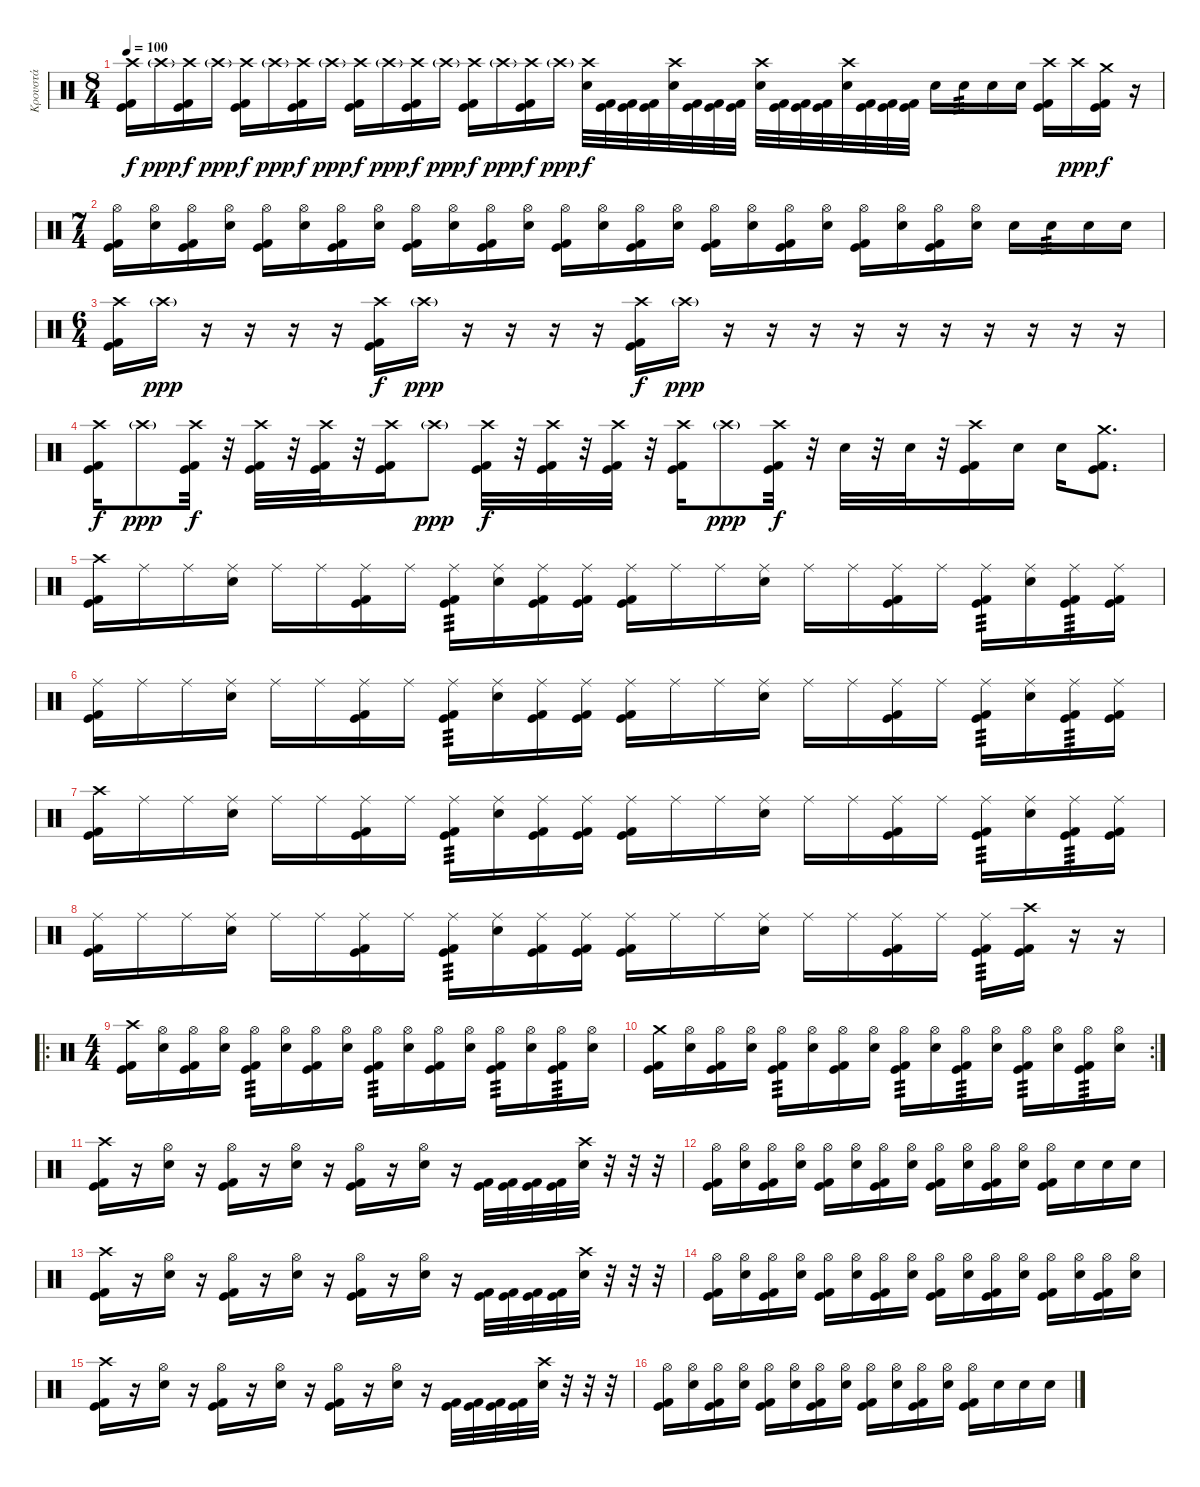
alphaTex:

\track ("Κρουστά" "Κρουστά") {instrument percussion}
\staff {score}
\articulation defaults
\ts (8 4)
\tempo 100
\clef neutral
\ks c
("Crash high (hit)" "Kick (hit)" "Kick (hit) 2").16{dy f} "Crash high (hit)"{g}.16{dy ppp} ("Crash high (hit)" "Kick (hit)" "Kick (hit) 2").16{dy f} "Crash high (hit)"{g}.16{dy ppp} ("Crash high (hit)" "Kick (hit)" "Kick (hit) 2").16{dy f} "Crash high (hit)"{g}.16{dy ppp} ("Crash high (hit)" "Kick (hit)" "Kick (hit) 2").16{dy f} "Crash high (hit)"{g}.16{dy ppp} ("Crash high (hit)" "Kick (hit)" "Kick (hit) 2").16{dy f} "Crash high (hit)"{g}.16{dy ppp} ("Crash high (hit)" "Kick (hit)" "Kick (hit) 2").16{dy f} "Crash high (hit)"{g}.16{dy ppp} ("Crash high (hit)" "Kick (hit)" "Kick (hit) 2").16{dy f} "Crash high (hit)"{g}.16{dy ppp} ("Crash high (hit)" "Kick (hit)" "Kick (hit) 2").16{dy f} "Crash high (hit)"{g}.16{dy ppp} ("Crash high (hit)" "Snare (hit) 2").32{dy f} ("Kick (hit)" "Kick (hit) 2").32 ("Kick (hit)" "Kick (hit) 2").32 ("Kick (hit)" "Kick (hit) 2").32 ("Crash high (hit)" "Snare (hit) 2").32 ("Kick (hit)" "Kick (hit) 2").32 ("Kick (hit)" "Kick (hit) 2").32 ("Kick (hit)" "Kick (hit) 2").32 ("Crash high (hit)" "Snare (hit) 2").32 ("Kick (hit)" "Kick (hit) 2").32 ("Kick (hit)" "Kick (hit) 2").32 ("Kick (hit)" "Kick (hit) 2").32 ("Crash high (hit)" "Snare (hit) 2").32 ("Kick (hit)" "Kick (hit) 2").32 ("Kick (hit)" "Kick (hit) 2").32 ("Kick (hit)" "Kick (hit) 2").32 "Snare (hit) 2".16 "Snare (hit) 2".16{tp 3} "Snare (hit) 2".16 "Snare (hit) 2".16 ("Crash high (hit)" "Kick (hit)" "Kick (hit) 2").16 "Crash high (hit)".16{dy ppp} ("Crash medium (hit)" "Kick (hit)" "Kick (hit) 2").16{dy f} r.16 |
\ts (7 4)
("Hi-Hat (open)" "Kick (hit)" "Kick (hit) 2").16 ("Hi-Hat (open)" "Snare (hit) 2").16 ("Hi-Hat (open)" "Kick (hit)" "Kick (hit) 2").16 ("Hi-Hat (open)" "Snare (hit) 2").16 ("Hi-Hat (open)" "Kick (hit)" "Kick (hit) 2").16 ("Hi-Hat (open)" "Snare (hit) 2").16 ("Hi-Hat (open)" "Kick (hit)" "Kick (hit) 2").16 ("Hi-Hat (open)" "Snare (hit) 2").16 ("Hi-Hat (open)" "Kick (hit)" "Kick (hit) 2").16 ("Hi-Hat (open)" "Snare (hit) 2").16 ("Hi-Hat (open)" "Kick (hit)" "Kick (hit) 2").16 ("Hi-Hat (open)" "Snare (hit) 2").16 ("Hi-Hat (open)" "Kick (hit)" "Kick (hit) 2").16 ("Hi-Hat (open)" "Snare (hit) 2").16 ("Hi-Hat (open)" "Kick (hit)" "Kick (hit) 2").16 ("Hi-Hat (open)" "Snare (hit) 2").16 ("Hi-Hat (open)" "Kick (hit)" "Kick (hit) 2").16 ("Hi-Hat (open)" "Snare (hit) 2").16 ("Hi-Hat (open)" "Kick (hit)" "Kick (hit) 2").16 ("Hi-Hat (open)" "Snare (hit) 2").16 ("Hi-Hat (open)" "Kick (hit)" "Kick (hit) 2").16 ("Hi-Hat (open)" "Snare (hit) 2").16 ("Hi-Hat (open)" "Kick (hit)" "Kick (hit) 2").16 ("Hi-Hat (open)" "Snare (hit) 2").16 "Snare (hit) 2".16 "Snare (hit) 2".16{tp 3} "Snare (hit) 2".16 "Snare (hit) 2".16 |
\ts (6 4)
("Crash high (hit)" "Kick (hit)" "Kick (hit) 2").16 "Crash high (hit)"{g}.16{dy ppp} r.16 r.16 r.16 r.16 ("Crash high (hit)" "Kick (hit)" "Kick (hit) 2").16{dy f} "Crash high (hit)"{g}.16{dy ppp} r.16 r.16 r.16 r.16 ("Crash high (hit)" "Kick (hit)" "Kick (hit) 2").16{dy f} "Crash high (hit)"{g}.16{dy ppp} r.16 r.16 r.16 r.16 r.16 r.16 r.16 r.16 r.16 r.16 |
("Crash high (hit)" "Kick (hit)" "Kick (hit) 2").16{dy f} "Crash high (hit)"{g}.8{dy ppp} ("Crash high (hit)" "Kick (hit)" "Kick (hit) 2").32{dy f} r.32 ("Crash high (hit)" "Kick (hit)" "Kick (hit) 2").32 r.32 ("Crash high (hit)" "Kick (hit)" "Kick (hit) 2").32 r.32 ("Crash high (hit)" "Kick (hit)" "Kick (hit) 2").16 "Crash high (hit)"{g}.8{dy ppp} ("Crash high (hit)" "Kick (hit)" "Kick (hit) 2").32{dy f} r.32 ("Crash high (hit)" "Kick (hit)" "Kick (hit) 2").32 r.32 ("Crash high (hit)" "Kick (hit)" "Kick (hit) 2").32 r.32 ("Crash high (hit)" "Kick (hit)" "Kick (hit) 2").16 "Crash high (hit)"{g}.8{dy ppp} ("Crash high (hit)" "Kick (hit)" "Kick (hit) 2").32{dy f} r.32 "Snare (hit) 2".32 r.32 "Snare (hit) 2".32 r.32 ("Crash high (hit)" "Kick (hit)" "Kick (hit) 2").16 "Snare (hit) 2".16 "Snare (hit) 2".16 ("Crash medium (hit)" "Kick (hit)" "Kick (hit) 2").8{d} |
("Crash high (hit)" "Kick (hit)" "Kick (hit) 2").16 "Ride (middle)".16 "Ride (middle)".16 ("Ride (middle)" "Snare (hit) 2").16 "Ride (middle)".16 "Ride (middle)".16 ("Ride (middle)" "Kick (hit)" "Kick (hit) 2").16 "Ride (middle)".16 ("Ride (middle)" "Kick (hit)" "Kick (hit) 2").16{tp 3} ("Ride (middle)" "Snare (hit) 2").16 ("Ride (middle)" "Kick (hit)" "Kick (hit) 2").16 ("Ride (middle)" "Kick (hit)" "Kick (hit) 2").16 ("Ride (middle)" "Kick (hit)" "Kick (hit) 2").16 "Ride (middle)".16 "Ride (middle)".16 ("Ride (middle)" "Snare (hit) 2").16 "Ride (middle)".16 "Ride (middle)".16 ("Ride (middle)" "Kick (hit)" "Kick (hit) 2").16 "Ride (middle)".16 ("Ride (middle)" "Kick (hit)" "Kick (hit) 2").16{tp 3} ("Ride (middle)" "Snare (hit) 2").16 ("Ride (middle)" "Kick (hit)" "Kick (hit) 2").16{tp 3} ("Ride (middle)" "Kick (hit)" "Kick (hit) 2").16 |
("Ride (middle)" "Kick (hit)" "Kick (hit) 2").16 "Ride (middle)".16 "Ride (middle)".16 ("Ride (middle)" "Snare (hit) 2").16 "Ride (middle)".16 "Ride (middle)".16 ("Ride (middle)" "Kick (hit)" "Kick (hit) 2").16 "Ride (middle)".16 ("Ride (middle)" "Kick (hit)" "Kick (hit) 2").16{tp 3} ("Ride (middle)" "Snare (hit) 2").16 ("Ride (middle)" "Kick (hit)" "Kick (hit) 2").16 ("Ride (middle)" "Kick (hit)" "Kick (hit) 2").16 ("Ride (middle)" "Kick (hit)" "Kick (hit) 2").16 "Ride (middle)".16 "Ride (middle)".16 ("Ride (middle)" "Snare (hit) 2").16 "Ride (middle)".16 "Ride (middle)".16 ("Ride (middle)" "Kick (hit)" "Kick (hit) 2").16 "Ride (middle)".16 ("Ride (middle)" "Kick (hit)" "Kick (hit) 2").16{tp 3} ("Ride (middle)" "Snare (hit) 2").16 ("Ride (middle)" "Kick (hit)" "Kick (hit) 2").16{tp 3} ("Ride (middle)" "Kick (hit)" "Kick (hit) 2").16 |
("Crash high (hit)" "Kick (hit)" "Kick (hit) 2").16 "Ride (middle)".16 "Ride (middle)".16 ("Ride (middle)" "Snare (hit) 2").16 "Ride (middle)".16 "Ride (middle)".16 ("Ride (middle)" "Kick (hit)" "Kick (hit) 2").16 "Ride (middle)".16 ("Ride (middle)" "Kick (hit)" "Kick (hit) 2").16{tp 3} ("Ride (middle)" "Snare (hit) 2").16 ("Ride (middle)" "Kick (hit)" "Kick (hit) 2").16 ("Ride (middle)" "Kick (hit)" "Kick (hit) 2").16 ("Ride (middle)" "Kick (hit)" "Kick (hit) 2").16 "Ride (middle)".16 "Ride (middle)".16 ("Ride (middle)" "Snare (hit) 2").16 "Ride (middle)".16 "Ride (middle)".16 ("Ride (middle)" "Kick (hit)" "Kick (hit) 2").16 "Ride (middle)".16 ("Ride (middle)" "Kick (hit)" "Kick (hit) 2").16{tp 3} ("Ride (middle)" "Snare (hit) 2").16 ("Ride (middle)" "Kick (hit)" "Kick (hit) 2").16{tp 3} ("Ride (middle)" "Kick (hit)" "Kick (hit) 2").16 |
("Ride (middle)" "Kick (hit)" "Kick (hit) 2").16 "Ride (middle)".16 "Ride (middle)".16 ("Ride (middle)" "Snare (hit) 2").16 "Ride (middle)".16 "Ride (middle)".16 ("Ride (middle)" "Kick (hit)" "Kick (hit) 2").16 "Ride (middle)".16 ("Ride (middle)" "Kick (hit)" "Kick (hit) 2").16{tp 3} ("Ride (middle)" "Snare (hit) 2").16 ("Ride (middle)" "Kick (hit)" "Kick (hit) 2").16 ("Ride (middle)" "Kick (hit)" "Kick (hit) 2").16 ("Ride (middle)" "Kick (hit)" "Kick (hit) 2").16 "Ride (middle)".16 "Ride (middle)".16 ("Ride (middle)" "Snare (hit) 2").16 "Ride (middle)".16 "Ride (middle)".16 ("Ride (middle)" "Kick (hit)" "Kick (hit) 2").16 "Ride (middle)".16 ("Ride (middle)" "Kick (hit)" "Kick (hit) 2").16{tp 3} ("Crash high (hit)" "Kick (hit)" "Kick (hit) 2").16 r.16 r.16 |
\ro
\ts (4 4)
("Crash high (hit)" "Kick (hit)" "Kick (hit) 2").16 ("Hi-Hat (open)" "Snare (hit) 2").16 ("Hi-Hat (open)" "Kick (hit)" "Kick (hit) 2").16 ("Hi-Hat (open)" "Snare (hit) 2").16 ("Hi-Hat (open)" "Kick (hit)" "Kick (hit) 2").16{tp 3} ("Hi-Hat (open)" "Snare (hit) 2").16 ("Hi-Hat (open)" "Kick (hit)" "Kick (hit) 2").16 ("Hi-Hat (open)" "Snare (hit) 2").16 ("Hi-Hat (open)" "Kick (hit)" "Kick (hit) 2").16{tp 3} ("Hi-Hat (open)" "Snare (hit) 2").16 ("Hi-Hat (open)" "Kick (hit)" "Kick (hit) 2").16 ("Hi-Hat (open)" "Snare (hit) 2").16 ("Hi-Hat (open)" "Kick (hit)" "Kick (hit) 2").16{tp 3} ("Hi-Hat (open)" "Snare (hit) 2").16 ("Hi-Hat (open)" "Kick (hit)" "Kick (hit) 2").16{tp 3} ("Hi-Hat (open)" "Snare (hit) 2").16 |
\rc 2
("Crash medium (hit)" "Kick (hit)" "Kick (hit) 2").16 ("Hi-Hat (open)" "Snare (hit) 2").16 ("Hi-Hat (open)" "Kick (hit)" "Kick (hit) 2").16 ("Hi-Hat (open)" "Snare (hit) 2").16 ("Hi-Hat (open)" "Kick (hit)" "Kick (hit) 2").16{tp 3} ("Hi-Hat (open)" "Snare (hit) 2").16 ("Hi-Hat (open)" "Kick (hit)" "Kick (hit) 2").16 ("Hi-Hat (open)" "Snare (hit) 2").16 ("Hi-Hat (open)" "Kick (hit)" "Kick (hit) 2").16{tp 3} ("Hi-Hat (open)" "Snare (hit) 2").16 ("Hi-Hat (open)" "Kick (hit)" "Kick (hit) 2").16{tp 3} ("Hi-Hat (open)" "Snare (hit) 2").16 ("Hi-Hat (open)" "Kick (hit)" "Kick (hit) 2").16{tp 3} ("Hi-Hat (open)" "Snare (hit) 2").16 ("Hi-Hat (open)" "Kick (hit)" "Kick (hit) 2").16{tp 3} ("Hi-Hat (open)" "Snare (hit) 2").16 |
("Crash high (hit)" "Kick (hit)" "Kick (hit) 2").16 r.16 ("Hi-Hat (open)" "Snare (hit) 2").16 r.16 ("Hi-Hat (open)" "Kick (hit)" "Kick (hit) 2").16 r.16 ("Hi-Hat (open)" "Snare (hit) 2").16 r.16 ("Hi-Hat (open)" "Kick (hit)" "Kick (hit) 2").16 r.16 ("Hi-Hat (open)" "Snare (hit) 2").16 r.16 ("Kick (hit)" "Kick (hit) 2").32 ("Kick (hit)" "Kick (hit) 2").32 ("Kick (hit)" "Kick (hit) 2").32 ("Kick (hit)" "Kick (hit) 2").32 ("Crash high (hit)" "Snare (hit) 2").32 r.32 r.32 r.32 |
("Hi-Hat (open)" "Kick (hit)" "Kick (hit) 2").16 ("Hi-Hat (open)" "Snare (hit) 2").16 ("Hi-Hat (open)" "Kick (hit)" "Kick (hit) 2").16 ("Hi-Hat (open)" "Snare (hit) 2").16 ("Hi-Hat (open)" "Kick (hit)" "Kick (hit) 2").16 ("Hi-Hat (open)" "Snare (hit) 2").16 ("Hi-Hat (open)" "Kick (hit)" "Kick (hit) 2").16 ("Hi-Hat (open)" "Snare (hit) 2").16 ("Hi-Hat (open)" "Kick (hit)" "Kick (hit) 2").16 ("Hi-Hat (open)" "Snare (hit) 2").16 ("Hi-Hat (open)" "Kick (hit)" "Kick (hit) 2").16 ("Hi-Hat (open)" "Snare (hit) 2").16 ("Hi-Hat (open)" "Kick (hit)" "Kick (hit) 2").16 "Snare (hit) 2".16 "Snare (hit) 2".16 "Snare (hit) 2".16 |
("Crash high (hit)" "Kick (hit)" "Kick (hit) 2").16 r.16 ("Hi-Hat (open)" "Snare (hit) 2").16 r.16 ("Hi-Hat (open)" "Kick (hit)" "Kick (hit) 2").16 r.16 ("Hi-Hat (open)" "Snare (hit) 2").16 r.16 ("Hi-Hat (open)" "Kick (hit)" "Kick (hit) 2").16 r.16 ("Hi-Hat (open)" "Snare (hit) 2").16 r.16 ("Kick (hit)" "Kick (hit) 2").32 ("Kick (hit)" "Kick (hit) 2").32 ("Kick (hit)" "Kick (hit) 2").32 ("Kick (hit)" "Kick (hit) 2").32 ("Crash high (hit)" "Snare (hit) 2").32 r.32 r.32 r.32 |
("Hi-Hat (open)" "Kick (hit)" "Kick (hit) 2").16 ("Hi-Hat (open)" "Snare (hit) 2").16 ("Hi-Hat (open)" "Kick (hit)" "Kick (hit) 2").16 ("Hi-Hat (open)" "Snare (hit) 2").16 ("Hi-Hat (open)" "Kick (hit)" "Kick (hit) 2").16 ("Hi-Hat (open)" "Snare (hit) 2").16 ("Hi-Hat (open)" "Kick (hit)" "Kick (hit) 2").16 ("Hi-Hat (open)" "Snare (hit) 2").16 ("Hi-Hat (open)" "Kick (hit)" "Kick (hit) 2").16 ("Hi-Hat (open)" "Snare (hit) 2").16 ("Hi-Hat (open)" "Kick (hit)" "Kick (hit) 2").16 ("Hi-Hat (open)" "Snare (hit) 2").16 ("Hi-Hat (open)" "Kick (hit)" "Kick (hit) 2").16 ("Hi-Hat (open)" "Snare (hit) 2").16 ("Hi-Hat (open)" "Kick (hit)" "Kick (hit) 2").16 ("Hi-Hat (open)" "Snare (hit) 2").16 |
("Crash high (hit)" "Kick (hit)" "Kick (hit) 2").16 r.16 ("Hi-Hat (open)" "Snare (hit) 2").16 r.16 ("Hi-Hat (open)" "Kick (hit)" "Kick (hit) 2").16 r.16 ("Hi-Hat (open)" "Snare (hit) 2").16 r.16 ("Hi-Hat (open)" "Kick (hit)" "Kick (hit) 2").16 r.16 ("Hi-Hat (open)" "Snare (hit) 2").16 r.16 ("Kick (hit)" "Kick (hit) 2").32 ("Kick (hit)" "Kick (hit) 2").32 ("Kick (hit)" "Kick (hit) 2").32 ("Kick (hit)" "Kick (hit) 2").32 ("Crash high (hit)" "Snare (hit) 2").32 r.32 r.32 r.32 |
("Hi-Hat (open)" "Kick (hit)" "Kick (hit) 2").16 ("Hi-Hat (open)" "Snare (hit) 2").16 ("Hi-Hat (open)" "Kick (hit)" "Kick (hit) 2").16 ("Hi-Hat (open)" "Snare (hit) 2").16 ("Hi-Hat (open)" "Kick (hit)" "Kick (hit) 2").16 ("Hi-Hat (open)" "Snare (hit) 2").16 ("Hi-Hat (open)" "Kick (hit)" "Kick (hit) 2").16 ("Hi-Hat (open)" "Snare (hit) 2").16 ("Hi-Hat (open)" "Kick (hit)" "Kick (hit) 2").16 ("Hi-Hat (open)" "Snare (hit) 2").16 ("Hi-Hat (open)" "Kick (hit)" "Kick (hit) 2").16 ("Hi-Hat (open)" "Snare (hit) 2").16 ("Hi-Hat (open)" "Kick (hit)" "Kick (hit) 2").16 "Snare (hit) 2".16 "Snare (hit) 2".16 "Snare (hit) 2".16
